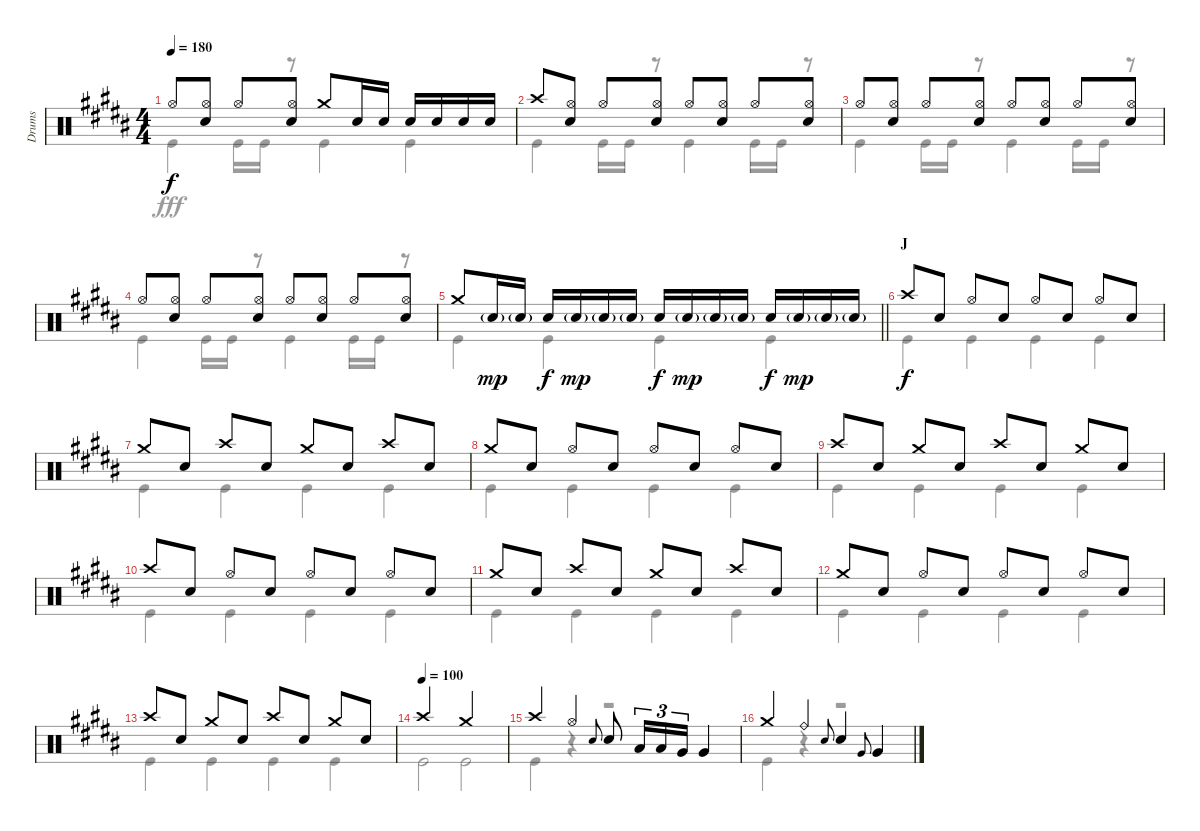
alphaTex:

\track ("Drums" "Drums") {instrument percussion}
\staff {score}
\articulation defaults
\voice
\ts (4 4)
\tempo 180
\clef neutral
\ks b "Hi-Hat (open)".8{dy f}
("Hi-Hat (open)" "Snare (hit) 2").8 "Hi-Hat (open)".8 ("Hi-Hat (open)" "Snare (hit) 2").8 "Crash medium (hit)".8 "Snare (hit) 2".16 "Snare (hit) 2".16 "Snare (hit) 2".16 "Snare (hit) 2".16 "Snare (hit) 2".16 "Snare (hit) 2".16 |
"Crash high (hit)".8 ("Hi-Hat (open)" "Snare (hit) 2").8 "Hi-Hat (open)".8 ("Hi-Hat (open)" "Snare (hit) 2").8 "Hi-Hat (open)".8 ("Hi-Hat (open)" "Snare (hit) 2").8 "Hi-Hat (open)".8 ("Hi-Hat (open)" "Snare (hit) 2").8 |
"Hi-Hat (open)".8 ("Hi-Hat (open)" "Snare (hit) 2").8 "Hi-Hat (open)".8 ("Hi-Hat (open)" "Snare (hit) 2").8 "Hi-Hat (open)".8 ("Hi-Hat (open)" "Snare (hit) 2").8 "Hi-Hat (open)".8 ("Hi-Hat (open)" "Snare (hit) 2").8 |
"Hi-Hat (open)".8 ("Hi-Hat (open)" "Snare (hit) 2").8 "Hi-Hat (open)".8 ("Hi-Hat (open)" "Snare (hit) 2").8 "Hi-Hat (open)".8 ("Hi-Hat (open)" "Snare (hit) 2").8 "Hi-Hat (open)".8 ("Hi-Hat (open)" "Snare (hit) 2").8 |
\barLineRight lightlight "Crash medium (hit)".8 "Snare (hit) 2"{g}.16{dy mp} "Snare (hit) 2"{g}.16 "Snare (hit) 2".16{dy f} "Snare (hit) 2"{g}.16{dy mp} "Snare (hit) 2"{g}.16 "Snare (hit) 2"{g}.16 "Snare (hit) 2".16{dy f} "Snare (hit) 2"{g}.16{dy mp} "Snare (hit) 2"{g}.16 "Snare (hit) 2"{g}.16 "Snare (hit) 2".16{dy f} "Snare (hit) 2"{g}.16{dy mp} "Snare (hit) 2"{g}.16 "Snare (hit) 2"{g}.16
|
\section ("" "J")
"Crash high (hit)".8{dy f} "Snare (hit) 2".8 "Hi-Hat (open)".8 "Snare (hit) 2".8 "Hi-Hat (open)".8 "Snare (hit) 2".8 "Hi-Hat (open)".8 "Snare (hit) 2".8 |
"Crash medium (hit)".8 "Snare (hit) 2".8 "Crash high (hit)".8 "Snare (hit) 2".8 "Crash medium (hit)".8 "Snare (hit) 2".8 "Crash high (hit)".8 "Snare (hit) 2".8 |
"Crash medium (hit)".8 "Snare (hit) 2".8 "Hi-Hat (open)".8 "Snare (hit) 2".8 "Hi-Hat (open)".8 "Snare (hit) 2".8 "Hi-Hat (open)".8 "Snare (hit) 2".8 |
"Crash high (hit)".8 "Snare (hit) 2".8 "Crash medium (hit)".8 "Snare (hit) 2".8 "Crash high (hit)".8 "Snare (hit) 2".8 "Crash medium (hit)".8 "Snare (hit) 2".8 |
"Crash high (hit)".8 "Snare (hit) 2".8 "Hi-Hat (open)".8 "Snare (hit) 2".8 "Hi-Hat (open)".8 "Snare (hit) 2".8 "Hi-Hat (open)".8 "Snare (hit) 2".8 |
"Crash medium (hit)".8 "Snare (hit) 2".8 "Crash high (hit)".8 "Snare (hit) 2".8 "Crash medium (hit)".8 "Snare (hit) 2".8 "Crash high (hit)".8 "Snare (hit) 2".8 |
"Crash medium (hit)".8 "Snare (hit) 2".8 "Hi-Hat (open)".8 "Snare (hit) 2".8 "Hi-Hat (open)".8 "Snare (hit) 2".8 "Hi-Hat (open)".8 "Snare (hit) 2".8 |
"Crash high (hit)".8 "Snare (hit) 2".8 "Crash medium (hit)".8 "Snare (hit) 2".8 "Crash high (hit)".8 "Snare (hit) 2".8 "Crash medium (hit)".8 "Snare (hit) 2".8 |
\tempo (100)
"Crash high (hit)".2 "Crash medium (hit)".2 |
"Crash high (hit)".4 "Hi-Hat (open)".4 "Snare (hit) 2".8{gr onbeat} "Snare (hit) 2".8 "Low Tom (hit)".16{tu (3 2)} "Low Tom (hit)".16{tu (3 2)} "Very Low Tom (hit)".16{tu (3 2)} "Very Low Tom (hit)".4 |
"Crash medium (hit)".4 "Ride (bell)".4 "Snare (hit) 2".8{gr onbeat} "Snare (hit) 2".4 "Very Low Tom (hit)".8{gr onbeat} "Very Low Tom (hit)".4
\voice
\clef neutral
\ottava regular
\simile none
\ks b "Kick (hit)".4{dy fff} "Kick (hit)".16 "Kick (hit)".16
r.8 "Kick (hit)".4 "Kick (hit)".4 |
"Kick (hit)".4 "Kick (hit)".16 "Kick (hit)".16 r.8 "Kick (hit)".4 "Kick (hit)".16 "Kick (hit)".16 r.8 |
"Kick (hit)".4 "Kick (hit)".16 "Kick (hit)".16 r.8 "Kick (hit)".4 "Kick (hit)".16 "Kick (hit)".16 r.8 |
"Kick (hit)".4 "Kick (hit)".16 "Kick (hit)".16 r.8 "Kick (hit)".4 "Kick (hit)".16 "Kick (hit)".16 r.8 |
\barLineRight lightlight "Kick (hit)".4 "Kick (hit)".4 "Kick (hit)".4 "Kick (hit)".4
|
"Kick (hit)".4 "Kick (hit)".4 "Kick (hit)".4 "Kick (hit)".4 |
"Kick (hit)".4 "Kick (hit)".4 "Kick (hit)".4 "Kick (hit)".4 |
"Kick (hit)".4 "Kick (hit)".4 "Kick (hit)".4 "Kick (hit)".4 |
"Kick (hit)".4 "Kick (hit)".4 "Kick (hit)".4 "Kick (hit)".4 |
"Kick (hit)".4 "Kick (hit)".4 "Kick (hit)".4 "Kick (hit)".4 |
"Kick (hit)".4 "Kick (hit)".4 "Kick (hit)".4 "Kick (hit)".4 |
"Kick (hit)".4 "Kick (hit)".4 "Kick (hit)".4 "Kick (hit)".4 |
"Kick (hit)".4 "Kick (hit)".4 "Kick (hit)".4 "Kick (hit)".4 |
"Kick (hit)".2 "Kick (hit)".2 |
"Kick (hit)".4 r.4 r.2 |
"Kick (hit)".4 r.4 r.2
